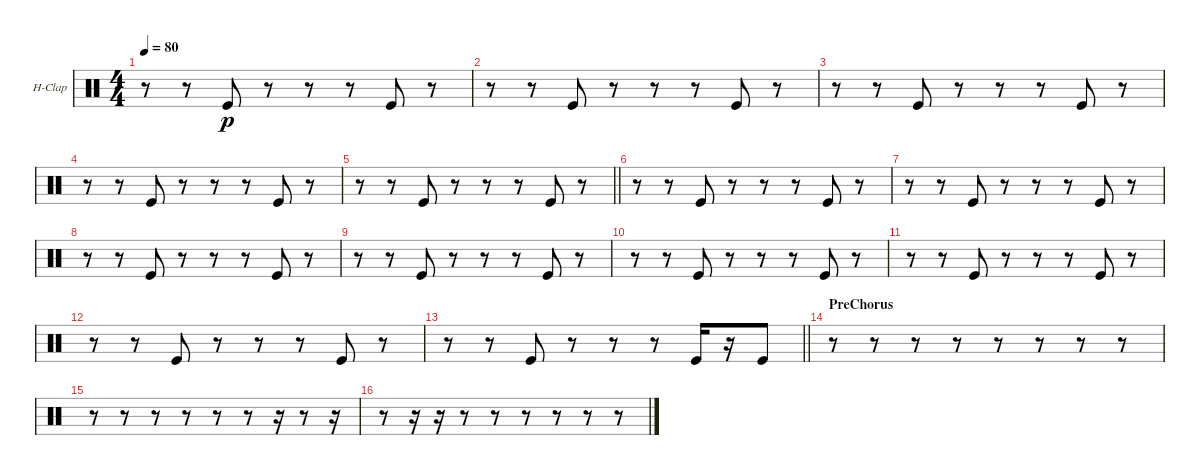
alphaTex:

\bracketExtendMode groupsimilarinstruments
\firstSystemTrackNameOrientation horizontal
\otherSystemsTrackNameOrientation horizontal
\track ("Hand Clap" "H-Clap") {instrument percussion}
\staff {score}
\articulation defaults
\ts (4 4)
\tempo 80
\clef neutral
\ks c
r.8{dy p} r.8 "Kick (hit)".8 r.8 r.8 r.8 "Kick (hit)".8 r.8 |
r.8 r.8 "Kick (hit)".8 r.8 r.8 r.8 "Kick (hit)".8 r.8 |
r.8 r.8 "Kick (hit)".8 r.8 r.8 r.8 "Kick (hit)".8 r.8 |
r.8 r.8 "Kick (hit)".8 r.8 r.8 r.8 "Kick (hit)".8 r.8 |
\barLineRight lightlight
r.8 r.8 "Kick (hit)".8 r.8 r.8 r.8 "Kick (hit)".8 r.8 |
r.8 r.8 "Kick (hit)".8 r.8 r.8 r.8 "Kick (hit)".8 r.8 |
r.8 r.8 "Kick (hit)".8 r.8 r.8 r.8 "Kick (hit)".8 r.8 |
r.8 r.8 "Kick (hit)".8 r.8 r.8 r.8 "Kick (hit)".8 r.8 |
r.8 r.8 "Kick (hit)".8 r.8 r.8 r.8 "Kick (hit)".8 r.8 |
r.8 r.8 "Kick (hit)".8 r.8 r.8 r.8 "Kick (hit)".8 r.8 |
r.8 r.8 "Kick (hit)".8 r.8 r.8 r.8 "Kick (hit)".8 r.8 |
r.8 r.8 "Kick (hit)".8 r.8 r.8 r.8 "Kick (hit)".8 r.8 |
\barLineRight lightlight
r.8 r.8 "Kick (hit)".8 r.8 r.8 r.8 "Kick (hit)".16 r.16 "Kick (hit)".8 |
\section ("" "PreChorus")
r.8 r.8 r.8 r.8 r.8 r.8 r.8 r.8 |
r.8 r.8 r.8 r.8 r.8 r.8 r.16 r.8 r.16 |
r.8 r.16 r.16 r.8 r.8 r.8 r.8 r.8 r.8
